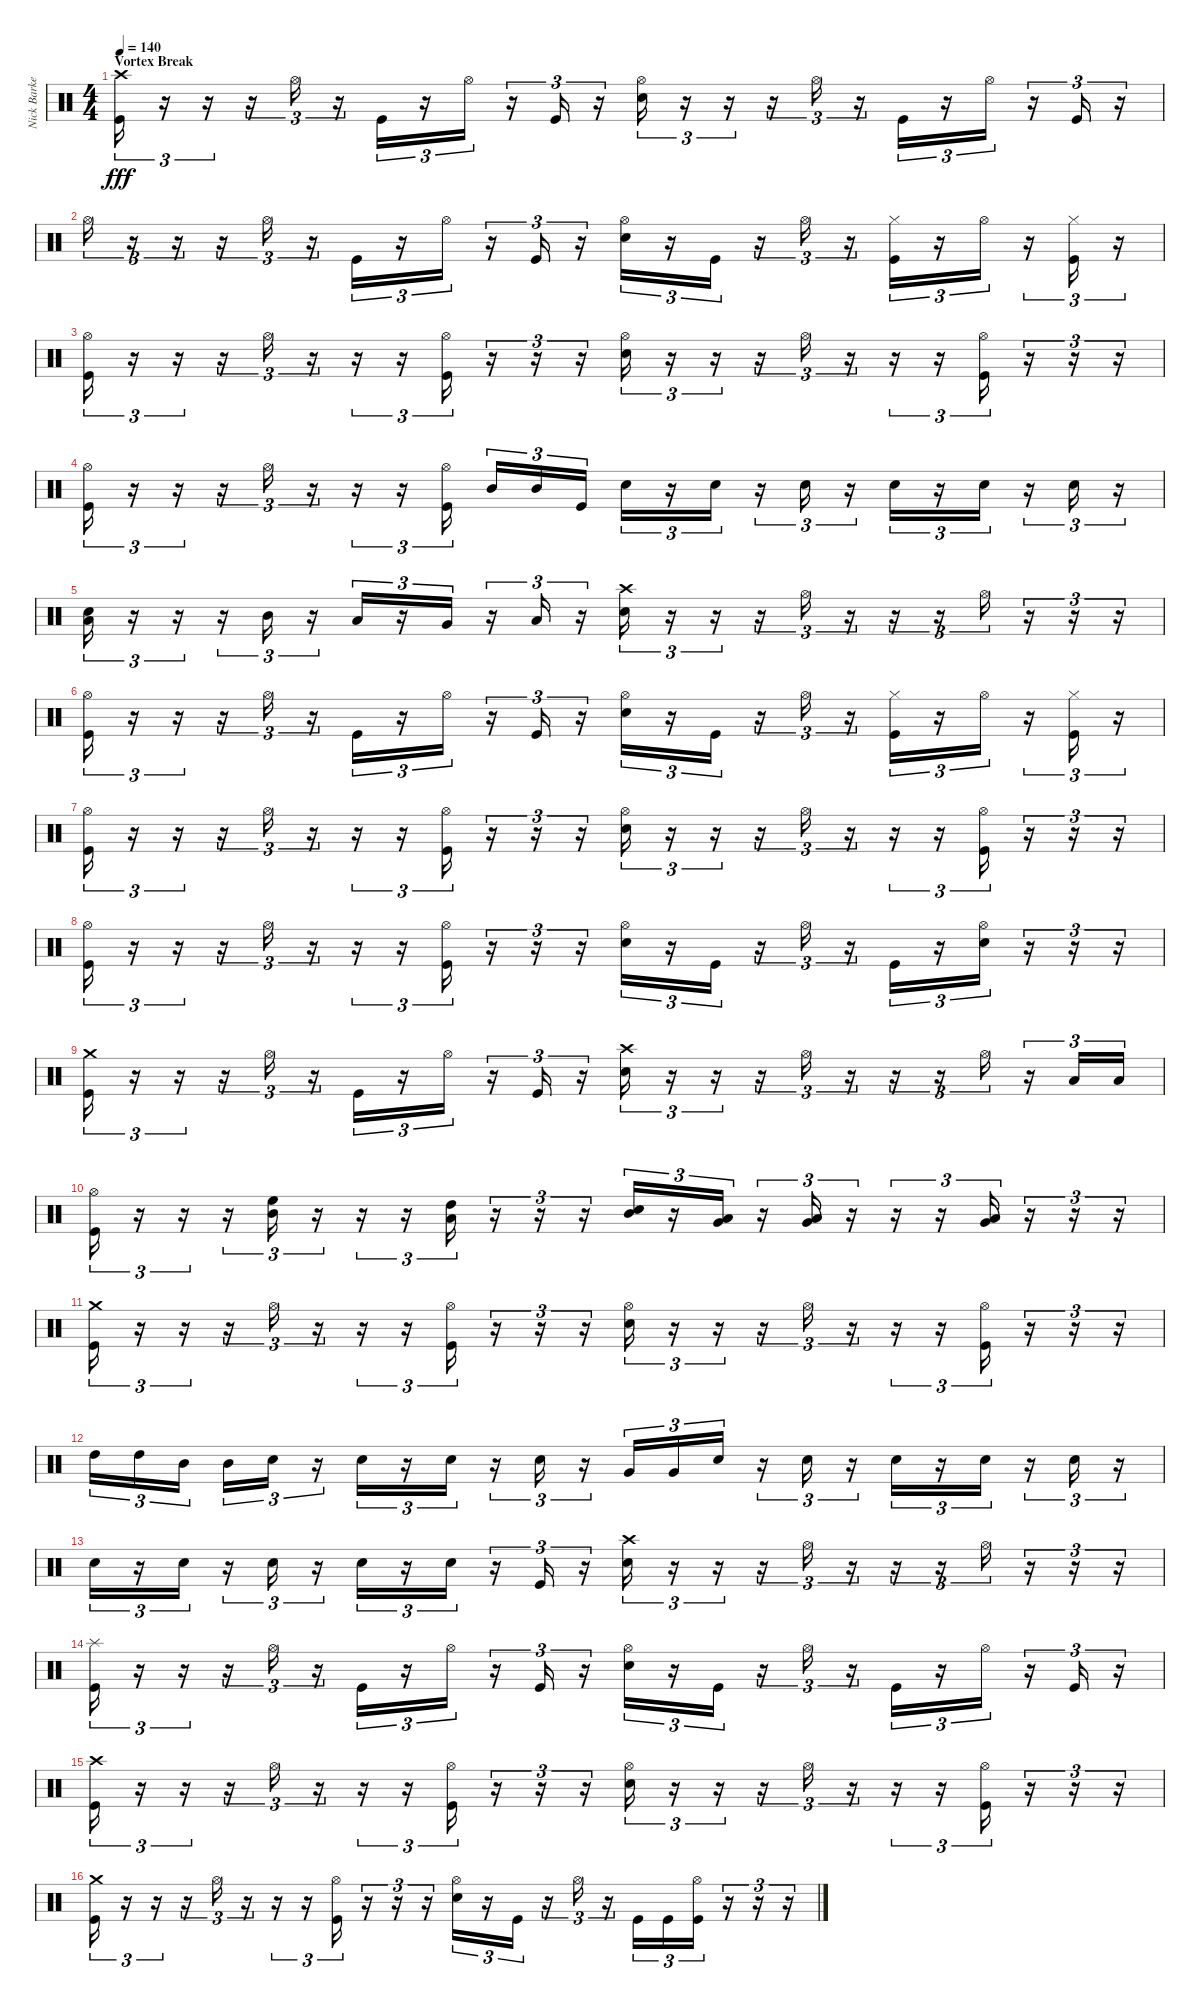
\track ("Nick Barker" "Nick Barke") {instrument percussion}
\staff {score}
\articulation defaults
\ts (4 4)
\section ("" "Vortex Break")
\tempo 140
\clef neutral
\ks c
("Crash high (hit)" "Kick (hit)").16{tu (3 2) dy fff} r.16{tu (3 2)} r.16{tu (3 2)} r.16{tu (3 2)} "Hi-Hat (open)".16{tu (3 2)} r.16{tu (3 2)} "Kick (hit)".16{tu (3 2)} r.16{tu (3 2)} "Hi-Hat (open)".16{tu (3 2)} r.16{tu (3 2)} "Kick (hit)".16{tu (3 2)} r.16{tu (3 2)} ("Hi-Hat (open)" "Electric Snare (hit)").16{tu (3 2)} r.16{tu (3 2)} r.16{tu (3 2)} r.16{tu (3 2)} "Hi-Hat (open)".16{tu (3 2)} r.16{tu (3 2)} "Kick (hit)".16{tu (3 2)} r.16{tu (3 2)} "Hi-Hat (open)".16{tu (3 2)} r.16{tu (3 2)} "Kick (hit)".16{tu (3 2)} r.16{tu (3 2)} |
"Hi-Hat (open)".16{tu (3 2)} r.16{tu (3 2)} r.16{tu (3 2)} r.16{tu (3 2)} "Hi-Hat (open)".16{tu (3 2)} r.16{tu (3 2)} "Kick (hit)".16{tu (3 2)} r.16{tu (3 2)} "Hi-Hat (open)".16{tu (3 2)} r.16{tu (3 2)} "Kick (hit)".16{tu (3 2)} r.16{tu (3 2)} ("Hi-Hat (open)" "Electric Snare (hit)").16{tu (3 2)} r.16{tu (3 2)} "Kick (hit)".16{tu (3 2)} r.16{tu (3 2)} "Hi-Hat (open)".16{tu (3 2)} r.16{tu (3 2)} ("Hi-Hat (closed)" "Kick (hit)").16{tu (3 2)} r.16{tu (3 2)} "Hi-Hat (open)".16{tu (3 2)} r.16{tu (3 2)} ("Hi-Hat (closed)" "Kick (hit)").16{tu (3 2)} r.16{tu (3 2)} |
("Hi-Hat (open)" "Kick (hit)").16{tu (3 2)} r.16{tu (3 2)} r.16{tu (3 2)} r.16{tu (3 2)} "Hi-Hat (open)".16{tu (3 2)} r.16{tu (3 2)} r.16{tu (3 2)} r.16{tu (3 2)} ("Hi-Hat (open)" "Kick (hit)").16{tu (3 2)} r.16{tu (3 2)} r.16{tu (3 2)} r.16{tu (3 2)} ("Hi-Hat (open)" "Electric Snare (hit)").16{tu (3 2)} r.16{tu (3 2)} r.16{tu (3 2)} r.16{tu (3 2)} "Hi-Hat (open)".16{tu (3 2)} r.16{tu (3 2)} r.16{tu (3 2)} r.16{tu (3 2)} ("Hi-Hat (open)" "Kick (hit)").16{tu (3 2)} r.16{tu (3 2)} r.16{tu (3 2)} r.16{tu (3 2)} |
("Hi-Hat (open)" "Kick (hit)").16{tu (3 2)} r.16{tu (3 2)} r.16{tu (3 2)} r.16{tu (3 2)} "Hi-Hat (open)".16{tu (3 2)} r.16{tu (3 2)} r.16{tu (3 2)} r.16{tu (3 2)} ("Hi-Hat (open)" "Kick (hit)").16{tu (3 2)} "Mid Tom (hit)".16{tu (3 2)} "Mid Tom (hit)".16{tu (3 2)} "Kick (hit)".16{tu (3 2)} "Electric Snare (hit)".16{tu (3 2)} r.16{tu (3 2)} "Electric Snare (hit)".16{tu (3 2)} r.16{tu (3 2)} "Electric Snare (hit)".16{tu (3 2)} r.16{tu (3 2)} "Electric Snare (hit)".16{tu (3 2)} r.16{tu (3 2)} "Electric Snare (hit)".16{tu (3 2)} r.16{tu (3 2)} "Electric Snare (hit)".16{tu (3 2)} r.16{tu (3 2)} |
("Low Tom (hit)" "Electric Snare (hit)").16{tu (3 2)} r.16{tu (3 2)} r.16{tu (3 2)} r.16{tu (3 2)} "Mid Tom (hit)".16{tu (3 2)} r.16{tu (3 2)} "Low Tom (hit)".16{tu (3 2)} r.16{tu (3 2)} "Very Low Tom (hit)".16{tu (3 2)} r.16{tu (3 2)} "Low Floor Tom (hit)".16{tu (3 2)} r.16{tu (3 2)} ("Crash high (hit)" "Electric Snare (hit)").16{tu (3 2)} r.16{tu (3 2)} r.16{tu (3 2)} r.16{tu (3 2)} "Hi-Hat (open)".16{tu (3 2)} r.16{tu (3 2)} r.16{tu (3 2)} r.16{tu (3 2)} "Hi-Hat (open)".16{tu (3 2)} r.16{tu (3 2)} r.16{tu (3 2)} r.16{tu (3 2)} |
("Hi-Hat (open)" "Kick (hit)").16{tu (3 2)} r.16{tu (3 2)} r.16{tu (3 2)} r.16{tu (3 2)} "Hi-Hat (open)".16{tu (3 2)} r.16{tu (3 2)} "Kick (hit)".16{tu (3 2)} r.16{tu (3 2)} "Hi-Hat (open)".16{tu (3 2)} r.16{tu (3 2)} "Kick (hit)".16{tu (3 2)} r.16{tu (3 2)} ("Hi-Hat (open)" "Electric Snare (hit)").16{tu (3 2)} r.16{tu (3 2)} "Kick (hit)".16{tu (3 2)} r.16{tu (3 2)} "Hi-Hat (open)".16{tu (3 2)} r.16{tu (3 2)} ("Hi-Hat (closed)" "Kick (hit)").16{tu (3 2)} r.16{tu (3 2)} "Hi-Hat (open)".16{tu (3 2)} r.16{tu (3 2)} ("Hi-Hat (closed)" "Kick (hit)").16{tu (3 2)} r.16{tu (3 2)} |
("Hi-Hat (open)" "Kick (hit)").16{tu (3 2)} r.16{tu (3 2)} r.16{tu (3 2)} r.16{tu (3 2)} "Hi-Hat (open)".16{tu (3 2)} r.16{tu (3 2)} r.16{tu (3 2)} r.16{tu (3 2)} ("Hi-Hat (open)" "Kick (hit)").16{tu (3 2)} r.16{tu (3 2)} r.16{tu (3 2)} r.16{tu (3 2)} ("Hi-Hat (open)" "Electric Snare (hit)").16{tu (3 2)} r.16{tu (3 2)} r.16{tu (3 2)} r.16{tu (3 2)} "Hi-Hat (open)".16{tu (3 2)} r.16{tu (3 2)} r.16{tu (3 2)} r.16{tu (3 2)} ("Hi-Hat (open)" "Kick (hit)").16{tu (3 2)} r.16{tu (3 2)} r.16{tu (3 2)} r.16{tu (3 2)} |
("Hi-Hat (open)" "Kick (hit)").16{tu (3 2)} r.16{tu (3 2)} r.16{tu (3 2)} r.16{tu (3 2)} "Hi-Hat (open)".16{tu (3 2)} r.16{tu (3 2)} r.16{tu (3 2)} r.16{tu (3 2)} ("Hi-Hat (open)" "Kick (hit)").16{tu (3 2)} r.16{tu (3 2)} r.16{tu (3 2)} r.16{tu (3 2)} ("Hi-Hat (open)" "Electric Snare (hit)").16{tu (3 2)} r.16{tu (3 2)} "Kick (hit)".16{tu (3 2)} r.16{tu (3 2)} "Hi-Hat (open)".16{tu (3 2)} r.16{tu (3 2)} "Kick (hit)".16{tu (3 2)} r.16{tu (3 2)} ("Hi-Hat (open)" "Electric Snare (hit)").16{tu (3 2)} r.16{tu (3 2)} r.16{tu (3 2)} r.16{tu (3 2)} |
("Crash medium (hit)" "Kick (hit)").16{tu (3 2)} r.16{tu (3 2)} r.16{tu (3 2)} r.16{tu (3 2)} "Hi-Hat (open)".16{tu (3 2)} r.16{tu (3 2)} "Kick (hit)".16{tu (3 2)} r.16{tu (3 2)} "Hi-Hat (open)".16{tu (3 2)} r.16{tu (3 2)} "Kick (hit)".16{tu (3 2)} r.16{tu (3 2)} ("Crash high (hit)" "Electric Snare (hit)").16{tu (3 2)} r.16{tu (3 2)} r.16{tu (3 2)} r.16{tu (3 2)} "Hi-Hat (open)".16{tu (3 2)} r.16{tu (3 2)} r.16{tu (3 2)} r.16{tu (3 2)} "Hi-Hat (open)".16{tu (3 2)} r.16{tu (3 2)} "Low Tom (hit)".16{tu (3 2)} "Low Tom (hit)".16{tu (3 2)} |
("Hi-Hat (open)" "Kick (hit)").16{tu (3 2)} r.16{tu (3 2)} r.16{tu (3 2)} r.16{tu (3 2)} ("High Floor Tom (hit)" "Mid Tom (hit)").16{tu (3 2)} r.16{tu (3 2)} r.16{tu (3 2)} r.16{tu (3 2)} ("High Tom (hit)" "Low Tom (hit)").16{tu (3 2)} r.16{tu (3 2)} r.16{tu (3 2)} r.16{tu (3 2)} ("Mid Tom (hit)" "Electric Snare (hit)").16{tu (3 2)} r.16{tu (3 2)} ("Low Tom (hit)" "Very Low Tom (hit)").16{tu (3 2)} r.16{tu (3 2)} ("Low Tom (hit)" "Very Low Tom (hit)").16{tu (3 2)} r.16{tu (3 2)} r.16{tu (3 2)} r.16{tu (3 2)} ("Very Low Tom (hit)" "Low Floor Tom (hit)").16{tu (3 2)} r.16{tu (3 2)} r.16{tu (3 2)} r.16{tu (3 2)} |
("Crash medium (hit)" "Kick (hit)").16{tu (3 2)} r.16{tu (3 2)} r.16{tu (3 2)} r.16{tu (3 2)} "Hi-Hat (open)".16{tu (3 2)} r.16{tu (3 2)} r.16{tu (3 2)} r.16{tu (3 2)} ("Hi-Hat (open)" "Kick (hit)").16{tu (3 2)} r.16{tu (3 2)} r.16{tu (3 2)} r.16{tu (3 2)} ("Hi-Hat (open)" "Electric Snare (hit)").16{tu (3 2)} r.16{tu (3 2)} r.16{tu (3 2)} r.16{tu (3 2)} "Hi-Hat (open)".16{tu (3 2)} r.16{tu (3 2)} r.16{tu (3 2)} r.16{tu (3 2)} ("Hi-Hat (open)" "Kick (hit)").16{tu (3 2)} r.16{tu (3 2)} r.16{tu (3 2)} r.16{tu (3 2)} |
"High Tom (hit)".16{tu (3 2)} "High Tom (hit)".16{tu (3 2)} "Mid Tom (hit)".16{tu (3 2)} "Mid Tom (hit)".16{tu (3 2)} "Electric Snare (hit)".16{tu (3 2)} r.16{tu (3 2)} "Electric Snare (hit)".16{tu (3 2)} r.16{tu (3 2)} "Electric Snare (hit)".16{tu (3 2)} r.16{tu (3 2)} "Electric Snare (hit)".16{tu (3 2)} r.16{tu (3 2)} "Very Low Tom (hit)".16{tu (3 2)} "Very Low Tom (hit)".16{tu (3 2)} "Electric Snare (hit)".16{tu (3 2)} r.16{tu (3 2)} "Electric Snare (hit)".16{tu (3 2)} r.16{tu (3 2)} "Electric Snare (hit)".16{tu (3 2)} r.16{tu (3 2)} "Electric Snare (hit)".16{tu (3 2)} r.16{tu (3 2)} "Electric Snare (hit)".16{tu (3 2)} r.16{tu (3 2)} |
"Electric Snare (hit)".16{tu (3 2)} r.16{tu (3 2)} "Electric Snare (hit)".16{tu (3 2)} r.16{tu (3 2)} "Electric Snare (hit)".16{tu (3 2)} r.16{tu (3 2)} "Electric Snare (hit)".16{tu (3 2)} r.16{tu (3 2)} "Electric Snare (hit)".16{tu (3 2)} r.16{tu (3 2)} "Kick (hit)".16{tu (3 2)} r.16{tu (3 2)} ("Crash high (hit)" "Electric Snare (hit)").16{tu (3 2)} r.16{tu (3 2)} r.16{tu (3 2)} r.16{tu (3 2)} "Hi-Hat (open)".16{tu (3 2)} r.16{tu (3 2)} r.16{tu (3 2)} r.16{tu (3 2)} "Hi-Hat (open)".16{tu (3 2)} r.16{tu (3 2)} r.16{tu (3 2)} r.16{tu (3 2)} |
("Splash (hit)" "Kick (hit)").16{tu (3 2)} r.16{tu (3 2)} r.16{tu (3 2)} r.16{tu (3 2)} "Hi-Hat (open)".16{tu (3 2)} r.16{tu (3 2)} "Kick (hit)".16{tu (3 2)} r.16{tu (3 2)} "Hi-Hat (open)".16{tu (3 2)} r.16{tu (3 2)} "Kick (hit)".16{tu (3 2)} r.16{tu (3 2)} ("Hi-Hat (open)" "Electric Snare (hit)").16{tu (3 2)} r.16{tu (3 2)} "Kick (hit)".16{tu (3 2)} r.16{tu (3 2)} "Hi-Hat (open)".16{tu (3 2)} r.16{tu (3 2)} "Kick (hit)".16{tu (3 2)} r.16{tu (3 2)} "Hi-Hat (open)".16{tu (3 2)} r.16{tu (3 2)} "Kick (hit)".16{tu (3 2)} r.16{tu (3 2)} |
("Crash high (hit)" "Kick (hit)").16{tu (3 2)} r.16{tu (3 2)} r.16{tu (3 2)} r.16{tu (3 2)} "Hi-Hat (open)".16{tu (3 2)} r.16{tu (3 2)} r.16{tu (3 2)} r.16{tu (3 2)} ("Hi-Hat (open)" "Kick (hit)").16{tu (3 2)} r.16{tu (3 2)} r.16{tu (3 2)} r.16{tu (3 2)} ("Hi-Hat (open)" "Electric Snare (hit)").16{tu (3 2)} r.16{tu (3 2)} r.16{tu (3 2)} r.16{tu (3 2)} "Hi-Hat (open)".16{tu (3 2)} r.16{tu (3 2)} r.16{tu (3 2)} r.16{tu (3 2)} ("Hi-Hat (open)" "Kick (hit)").16{tu (3 2)} r.16{tu (3 2)} r.16{tu (3 2)} r.16{tu (3 2)} |
("Crash medium (hit)" "Kick (hit)").16{tu (3 2)} r.16{tu (3 2)} r.16{tu (3 2)} r.16{tu (3 2)} "Hi-Hat (open)".16{tu (3 2)} r.16{tu (3 2)} r.16{tu (3 2)} r.16{tu (3 2)} ("Hi-Hat (open)" "Kick (hit)").16{tu (3 2)} r.16{tu (3 2)} r.16{tu (3 2)} r.16{tu (3 2)} ("Hi-Hat (open)" "Electric Snare (hit)").16{tu (3 2)} r.16{tu (3 2)} "Kick (hit)".16{tu (3 2)} r.16{tu (3 2)} "Hi-Hat (open)".16{tu (3 2)} r.16{tu (3 2)} "Kick (hit)".16{tu (3 2)} "Kick (hit)".16{tu (3 2)} ("Hi-Hat (open)" "Kick (hit)").16{tu (3 2)} r.16{tu (3 2)} r.16{tu (3 2)} r.16{tu (3 2)}
